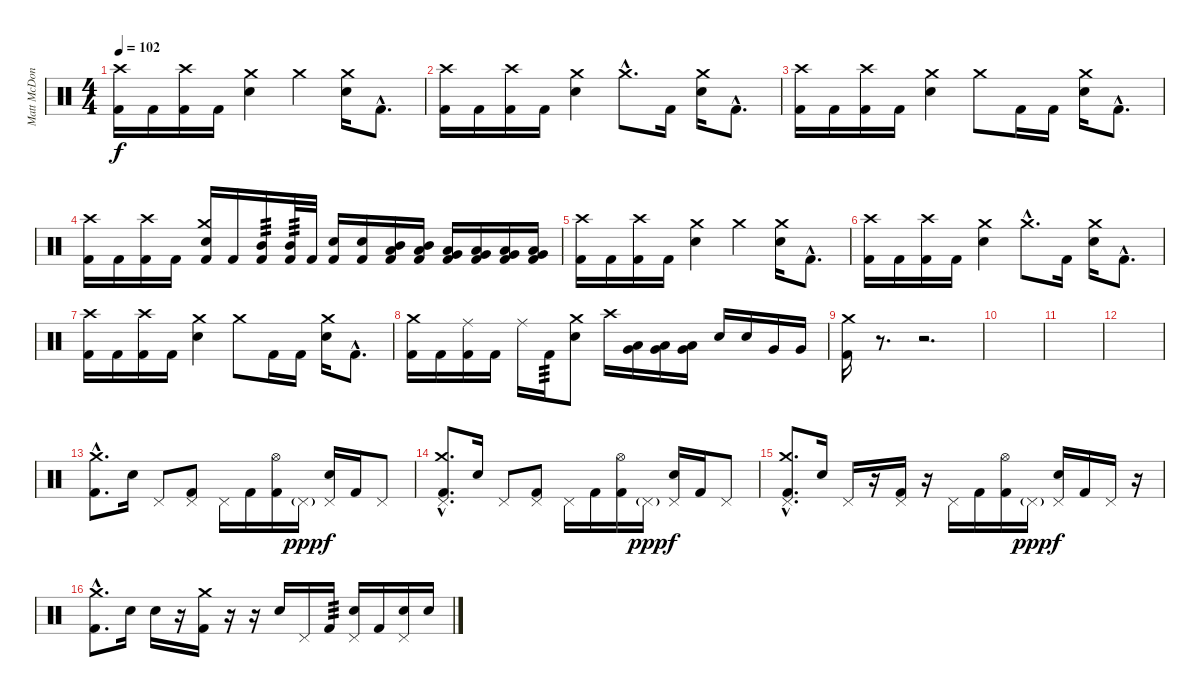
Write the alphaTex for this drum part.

\track ("Matt McDonough" "Matt McDon") {instrument percussion}
\staff {score}
\articulation defaults
\ts (4 4)
\tempo 102
\clef neutral
\ks c
("Crash high (hit)" "Kick (hit) 2").16{dy f} "Kick (hit) 2".16 ("Crash high (hit)" "Kick (hit) 2").16 "Kick (hit) 2".16 ("Crash medium (hit)" "Electric Snare (hit)").4 "Crash medium (hit)".4 ("Crash medium (hit)" "Electric Snare (hit)").16 "Kick (hit) 2"{hac}.8{d} |
("Crash high (hit)" "Kick (hit) 2").16 "Kick (hit) 2".16 ("Crash high (hit)" "Kick (hit) 2").16 "Kick (hit) 2".16 ("Crash medium (hit)" "Electric Snare (hit)").4 "Crash medium (hit)"{hac}.8{d} "Kick (hit) 2".16 ("Crash medium (hit)" "Electric Snare (hit)").16 "Kick (hit) 2"{hac}.8{d} |
("Crash high (hit)" "Kick (hit) 2").16 "Kick (hit) 2".16 ("Crash high (hit)" "Kick (hit) 2").16 "Kick (hit) 2".16 ("Crash medium (hit)" "Electric Snare (hit)").4 "Crash medium (hit)".8 "Kick (hit) 2".16 "Kick (hit) 2".16 ("Crash medium (hit)" "Electric Snare (hit)").16 "Kick (hit) 2"{hac}.8{d} |
("Crash high (hit)" "Kick (hit) 2").16 "Kick (hit) 2".16 ("Crash high (hit)" "Kick (hit) 2").16 "Kick (hit) 2".16 ("Crash medium (hit)" "Electric Snare (hit)" "Kick (hit) 2").16 "Kick (hit) 2".16 ("Mid Tom (hit)" "Kick (hit) 2").16{tp 3} ("Mid Tom (hit)" "Kick (hit) 2").32{tp 3} "Kick (hit) 2".32 ("Electric Snare (hit)" "Kick (hit) 2").16 ("Electric Snare (hit)" "Kick (hit) 2").16 ("Mid Tom (hit)" "Low Tom (hit)" "Kick (hit) 2").16 ("Mid Tom (hit)" "Low Tom (hit)" "Kick (hit) 2").16 ("Low Tom (hit)" "Very Low Tom (hit)" "Kick (hit) 2").16 ("Low Tom (hit)" "Very Low Tom (hit)" "Kick (hit) 2").16 ("Very Low Tom (hit)" "Low Floor Tom (hit)" "Kick (hit) 2").16 ("Very Low Tom (hit)" "Low Floor Tom (hit)" "Kick (hit) 2").16 |
("Crash high (hit)" "Kick (hit) 2").16 "Kick (hit) 2".16 ("Crash high (hit)" "Kick (hit) 2").16 "Kick (hit) 2".16 ("Crash medium (hit)" "Electric Snare (hit)").4 "Crash medium (hit)".4 ("Crash medium (hit)" "Electric Snare (hit)").16 "Kick (hit) 2"{hac}.8{d} |
("Crash high (hit)" "Kick (hit) 2").16 "Kick (hit) 2".16 ("Crash high (hit)" "Kick (hit) 2").16 "Kick (hit) 2".16 ("Crash medium (hit)" "Electric Snare (hit)").4 "Crash medium (hit)"{hac}.8{d} "Kick (hit) 2".16 ("Crash medium (hit)" "Electric Snare (hit)").16 "Kick (hit) 2"{hac}.8{d} |
("Crash high (hit)" "Kick (hit) 2").16 "Kick (hit) 2".16 ("Crash high (hit)" "Kick (hit) 2").16 "Kick (hit) 2".16 ("Crash medium (hit)" "Electric Snare (hit)").4 "Crash medium (hit)".8 "Kick (hit) 2".16 "Kick (hit) 2".16 ("Crash medium (hit)" "Electric Snare (hit)").16 "Kick (hit) 2"{hac}.8{d} |
("Crash medium (hit)" "Kick (hit) 2").16 "Kick (hit) 2".16 ("Ride (middle)" "Kick (hit) 2").16 "Kick (hit) 2".16 "Ride (middle)".16 "Kick (hit) 2".16{tp 3} ("Crash medium (hit)" "Electric Snare (hit)").8 "Crash high (hit)".16 ("Very Low Tom (hit)" "Low Floor Tom (hit)").16 ("Very Low Tom (hit)" "Low Floor Tom (hit)").16 ("Very Low Tom (hit)" "Low Floor Tom (hit)").16 "Electric Snare (hit)".16 "Electric Snare (hit)".16 "Very Low Tom (hit)".16 "Very Low Tom (hit)".16 |
("Crash medium (hit)" "Kick (hit) 2").16 r.8{d volume 0} r.2{d} |
|
|
|
("Crash medium (hit)"{hac} "Kick (hit) 2"{hac}).8{d} "Electric Snare (hit)".16 "Pedal Hi-Hat (hit)".8 ("Pedal Hi-Hat (hit)" "Kick (hit) 2").8 "Pedal Hi-Hat (hit)".16 "Kick (hit) 2".16 ("Hi-Hat (open)" "Kick (hit) 2").16 "Pedal Hi-Hat (hit)"{g}.16{dy ppp} ("Pedal Hi-Hat (hit)" "Electric Snare (hit)").16{dy f} "Kick (hit) 2".16 "Pedal Hi-Hat (hit)".8 |
("Pedal Hi-Hat (hit)"{hac} "Crash medium (hit)"{hac} "Kick (hit) 2"{hac}).8{d} "Electric Snare (hit)".16 "Pedal Hi-Hat (hit)".8 ("Pedal Hi-Hat (hit)" "Kick (hit) 2").8 "Pedal Hi-Hat (hit)".16 "Kick (hit) 2".16 ("Hi-Hat (open)" "Kick (hit) 2").16 "Pedal Hi-Hat (hit)"{g}.16{dy ppp} ("Pedal Hi-Hat (hit)" "Electric Snare (hit)").16{dy f} "Kick (hit) 2".16 "Pedal Hi-Hat (hit)".8 |
("Pedal Hi-Hat (hit)"{hac} "Crash medium (hit)"{hac} "Kick (hit) 2"{hac}).8{d} "Electric Snare (hit)".16 "Pedal Hi-Hat (hit)".16 r.16 ("Pedal Hi-Hat (hit)" "Kick (hit) 2").16 r.16 "Pedal Hi-Hat (hit)".16 "Kick (hit) 2".16 ("Hi-Hat (open)" "Kick (hit) 2").16 "Pedal Hi-Hat (hit)"{g}.16{dy ppp} ("Pedal Hi-Hat (hit)" "Electric Snare (hit)").16{dy f} "Kick (hit) 2".16 "Pedal Hi-Hat (hit)".16 r.16 |
("Crash medium (hit)"{hac} "Kick (hit) 2"{hac}).8{d} "Electric Snare (hit)".16 "Electric Snare (hit)".16 r.16 ("Crash medium (hit)" "Kick (hit) 2").16 r.16 r.16 "Electric Snare (hit)".16 "Pedal Hi-Hat (hit)".16 "Kick (hit) 2".16{tp 3} ("Pedal Hi-Hat (hit)" "Electric Snare (hit)").16 "Kick (hit) 2".16 ("Pedal Hi-Hat (hit)" "Electric Snare (hit)").16 "Electric Snare (hit)".16
